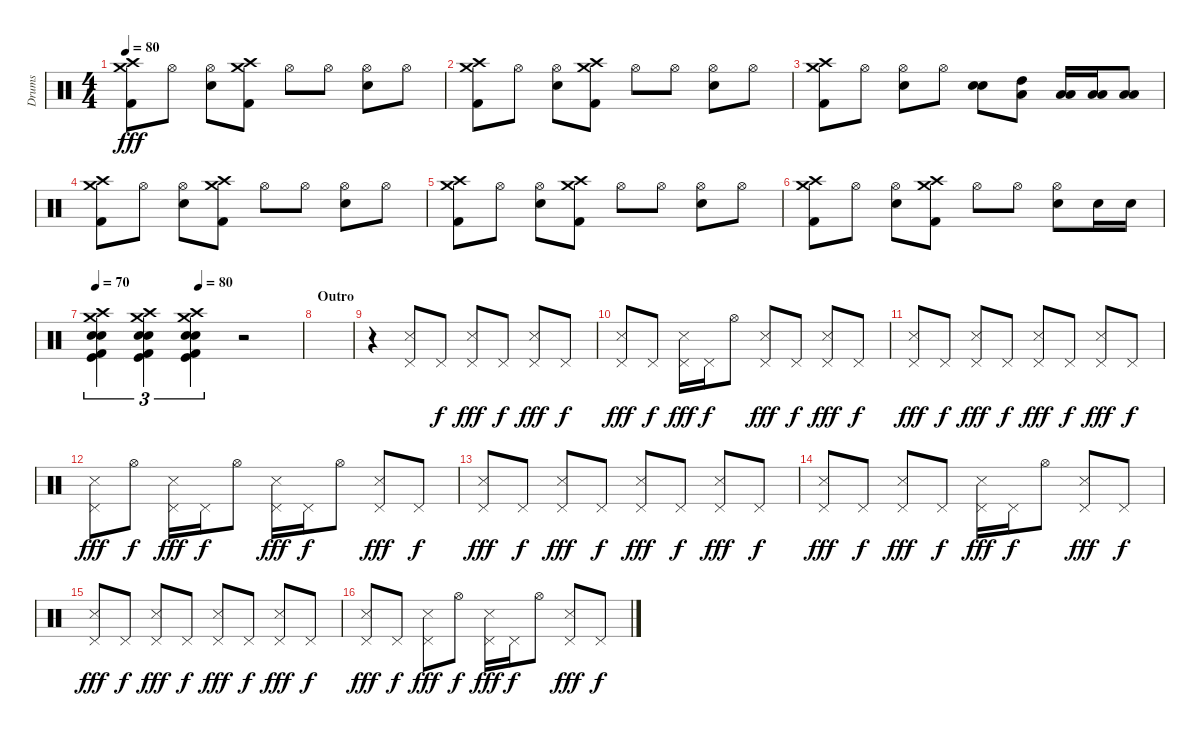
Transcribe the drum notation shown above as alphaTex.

\track ("Drums" "Drums") {instrument percussion}
\staff {score}
\articulation defaults
\ts (4 4)
\tempo 80
\clef neutral
\ks c
("Crash medium (hit)" "Crash high (hit)" "Kick (hit) 2").8{dy fff} "Hi-Hat (open)".8 ("Hi-Hat (open)" "Electric Snare (hit)").8 ("Crash high (hit)" "Crash medium (hit)" "Kick (hit) 2").8 "Hi-Hat (open)".8 "Hi-Hat (open)".8 ("Hi-Hat (open)" "Electric Snare (hit)").8 "Hi-Hat (open)".8 |
("Crash medium (hit)" "Crash high (hit)" "Kick (hit) 2").8 "Hi-Hat (open)".8 ("Hi-Hat (open)" "Electric Snare (hit)").8 ("Crash high (hit)" "Crash medium (hit)" "Kick (hit) 2").8 "Hi-Hat (open)".8 "Hi-Hat (open)".8 ("Hi-Hat (open)" "Electric Snare (hit)").8 "Hi-Hat (open)".8 |
("Crash high (hit)" "Crash medium (hit)" "Kick (hit) 2").8 "Hi-Hat (open)".8 ("Hi-Hat (open)" "Electric Snare (hit)").8 "Hi-Hat (open)".8 ("Snare (hit) 2" "Electric Snare (hit)").8 ("High Tom (hit)" "Low Floor Tom (hit)").8 ("Low Tom (hit)" "Low Floor Tom (hit)").16 ("Low Tom (hit)" "Low Floor Tom (hit)").16 ("Low Tom (hit)" "Low Floor Tom (hit)").8 |
("Crash medium (hit)" "Crash high (hit)" "Kick (hit) 2").8 "Hi-Hat (open)".8 ("Hi-Hat (open)" "Electric Snare (hit)").8 ("Crash high (hit)" "Crash medium (hit)" "Kick (hit) 2").8 "Hi-Hat (open)".8 "Hi-Hat (open)".8 ("Hi-Hat (open)" "Electric Snare (hit)").8 "Hi-Hat (open)".8 |
("Crash medium (hit)" "Crash high (hit)" "Kick (hit) 2").8 "Hi-Hat (open)".8 ("Hi-Hat (open)" "Electric Snare (hit)").8 ("Crash high (hit)" "Crash medium (hit)" "Kick (hit) 2").8 "Hi-Hat (open)".8 "Hi-Hat (open)".8 ("Hi-Hat (open)" "Electric Snare (hit)").8 "Hi-Hat (open)".8 |
("Crash medium (hit)" "Crash high (hit)" "Kick (hit) 2").8 "Hi-Hat (open)".8 ("Hi-Hat (open)" "Electric Snare (hit)").8 ("Crash high (hit)" "Crash medium (hit)" "Kick (hit) 2").8 "Hi-Hat (open)".8 "Hi-Hat (open)".8 ("Hi-Hat (open)" "Electric Snare (hit)").8 "Electric Snare (hit)".16 "Electric Snare (hit)".16 |
\tempo 70
\tempo (80 0.5)
("Crash medium (hit)" "Crash high (hit)" "Snare (hit) 2" "Electric Snare (hit)" "Kick (hit)" "Kick (hit) 2").4{tu (3 2)} ("Crash medium (hit)" "Crash high (hit)" "Snare (hit) 2" "Electric Snare (hit)" "Kick (hit)" "Kick (hit) 2").4{tu (3 2)} ("Crash medium (hit)" "Crash high (hit)" "Snare (hit) 2" "Electric Snare (hit)" "Kick (hit)" "Kick (hit) 2").4{tu (3 2)} r.2 |
\section ("" "Outro")
|
r.4 ("Snare (side stick) 3" "Pedal Hi-Hat (hit)").8 "Pedal Hi-Hat (hit)".8{dy f} ("Snare (side stick) 3" "Pedal Hi-Hat (hit)").8{dy fff} "Pedal Hi-Hat (hit)".8{dy f} ("Snare (side stick) 3" "Pedal Hi-Hat (hit)").8{dy fff} "Pedal Hi-Hat (hit)".8{dy f} |
("Snare (side stick) 3" "Pedal Hi-Hat (hit)").8{dy fff} "Pedal Hi-Hat (hit)".8{dy f} ("Snare (side stick) 3" "Pedal Hi-Hat (hit)").16{dy fff} "Pedal Hi-Hat (hit)".16{dy f} "Hi-Hat (open)".8 ("Snare (side stick) 3" "Pedal Hi-Hat (hit)").8{dy fff} "Pedal Hi-Hat (hit)".8{dy f} ("Snare (side stick) 3" "Pedal Hi-Hat (hit)").8{dy fff} "Pedal Hi-Hat (hit)".8{dy f} |
("Snare (side stick) 3" "Pedal Hi-Hat (hit)").8{dy fff} "Pedal Hi-Hat (hit)".8{dy f} ("Snare (side stick) 3" "Pedal Hi-Hat (hit)").8{dy fff} "Pedal Hi-Hat (hit)".8{dy f} ("Snare (side stick) 3" "Pedal Hi-Hat (hit)").8{dy fff} "Pedal Hi-Hat (hit)".8{dy f} ("Snare (side stick) 3" "Pedal Hi-Hat (hit)").8{dy fff} "Pedal Hi-Hat (hit)".8{dy f} |
("Snare (side stick) 3" "Pedal Hi-Hat (hit)").8{dy fff} "Hi-Hat (open)".8{dy f} ("Snare (side stick) 3" "Pedal Hi-Hat (hit)").16{dy fff} "Pedal Hi-Hat (hit)".16{dy f} "Hi-Hat (open)".8 ("Snare (side stick) 3" "Pedal Hi-Hat (hit)").16{dy fff} "Pedal Hi-Hat (hit)".16{dy f} "Hi-Hat (open)".8 ("Snare (side stick) 3" "Pedal Hi-Hat (hit)").8{dy fff} "Pedal Hi-Hat (hit)".8{dy f} |
("Snare (side stick) 3" "Pedal Hi-Hat (hit)").8{dy fff} "Pedal Hi-Hat (hit)".8{dy f} ("Snare (side stick) 3" "Pedal Hi-Hat (hit)").8{dy fff} "Pedal Hi-Hat (hit)".8{dy f} ("Snare (side stick) 3" "Pedal Hi-Hat (hit)").8{dy fff} "Pedal Hi-Hat (hit)".8{dy f} ("Snare (side stick) 3" "Pedal Hi-Hat (hit)").8{dy fff} "Pedal Hi-Hat (hit)".8{dy f} |
("Snare (side stick) 3" "Pedal Hi-Hat (hit)").8{dy fff} "Pedal Hi-Hat (hit)".8{dy f} ("Snare (side stick) 3" "Pedal Hi-Hat (hit)").8{dy fff} "Pedal Hi-Hat (hit)".8{dy f} ("Snare (side stick) 3" "Pedal Hi-Hat (hit)").16{dy fff} "Pedal Hi-Hat (hit)".16{dy f} "Hi-Hat (open)".8 ("Snare (side stick) 3" "Pedal Hi-Hat (hit)").8{dy fff} "Pedal Hi-Hat (hit)".8{dy f} |
("Snare (side stick) 3" "Pedal Hi-Hat (hit)").8{dy fff} "Pedal Hi-Hat (hit)".8{dy f} ("Snare (side stick) 3" "Pedal Hi-Hat (hit)").8{dy fff} "Pedal Hi-Hat (hit)".8{dy f} ("Snare (side stick) 3" "Pedal Hi-Hat (hit)").8{dy fff} "Pedal Hi-Hat (hit)".8{dy f} ("Snare (side stick) 3" "Pedal Hi-Hat (hit)").8{dy fff} "Pedal Hi-Hat (hit)".8{dy f} |
("Snare (side stick) 3" "Pedal Hi-Hat (hit)").8{dy fff} "Pedal Hi-Hat (hit)".8{dy f} ("Snare (side stick) 3" "Pedal Hi-Hat (hit)").8{dy fff} "Hi-Hat (open)".8{dy f} ("Snare (side stick) 3" "Pedal Hi-Hat (hit)").16{dy fff} "Pedal Hi-Hat (hit)".16{dy f} "Hi-Hat (open)".8 ("Snare (side stick) 3" "Pedal Hi-Hat (hit)").8{dy fff} "Pedal Hi-Hat (hit)".8{dy f}
